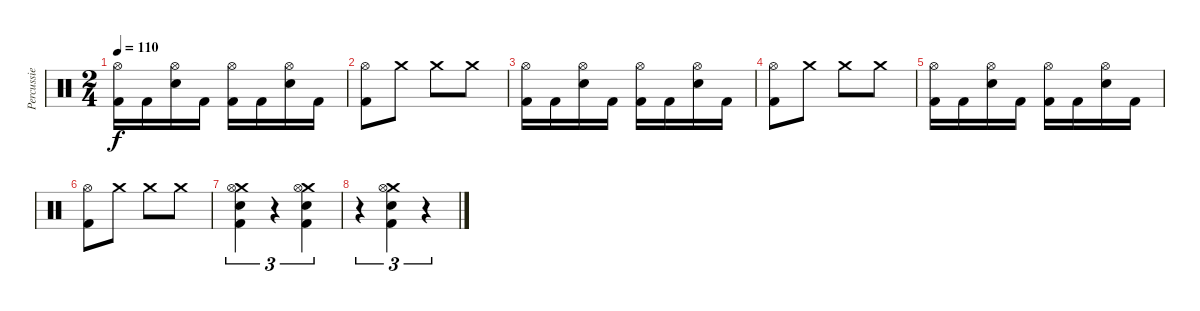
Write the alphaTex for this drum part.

\track ("Percussie" "Percussie") {instrument percussion}
\staff {score}
\articulation defaults
\ts (2 4)
\tempo 110
\clef neutral
\ks c
("Hi-Hat (open)" "Kick (hit) 2").16{dy f} "Kick (hit) 2".16 ("Hi-Hat (open)" "Electric Snare (hit)").16 "Kick (hit) 2".16 ("Hi-Hat (open)" "Kick (hit) 2").16 "Kick (hit) 2".16 ("Hi-Hat (open)" "Electric Snare (hit)").16 "Kick (hit) 2".16 |
("Hi-Hat (open)" "Kick (hit) 2").8 "Crash medium (hit)".8 "Crash medium (hit)".8 "Crash medium (hit)".8 |
("Hi-Hat (open)" "Kick (hit) 2").16 "Kick (hit) 2".16 ("Hi-Hat (open)" "Electric Snare (hit)").16 "Kick (hit) 2".16 ("Hi-Hat (open)" "Kick (hit) 2").16 "Kick (hit) 2".16 ("Hi-Hat (open)" "Electric Snare (hit)").16 "Kick (hit) 2".16 |
("Hi-Hat (open)" "Kick (hit) 2").8 "Crash medium (hit)".8 "Crash medium (hit)".8 "Crash medium (hit)".8 |
("Hi-Hat (open)" "Kick (hit) 2").16 "Kick (hit) 2".16 ("Hi-Hat (open)" "Electric Snare (hit)").16 "Kick (hit) 2".16 ("Hi-Hat (open)" "Kick (hit) 2").16 "Kick (hit) 2".16 ("Hi-Hat (open)" "Electric Snare (hit)").16 "Kick (hit) 2".16 |
("Hi-Hat (open)" "Kick (hit) 2").8 "Crash medium (hit)".8 "Crash medium (hit)".8 "Crash medium (hit)".8 |
("Crash medium (hit)" "Hi-Hat (open)" "Electric Snare (hit)" "Kick (hit) 2").4{tu (3 2)} r.4{tu (3 2)} ("Crash medium (hit)" "Hi-Hat (open)" "Electric Snare (hit)" "Kick (hit) 2").4{tu (3 2)} |
r.4{tu (3 2)} ("Crash medium (hit)" "Hi-Hat (open)" "Electric Snare (hit)" "Kick (hit) 2").4{tu (3 2)} r.4{tu (3 2)}
